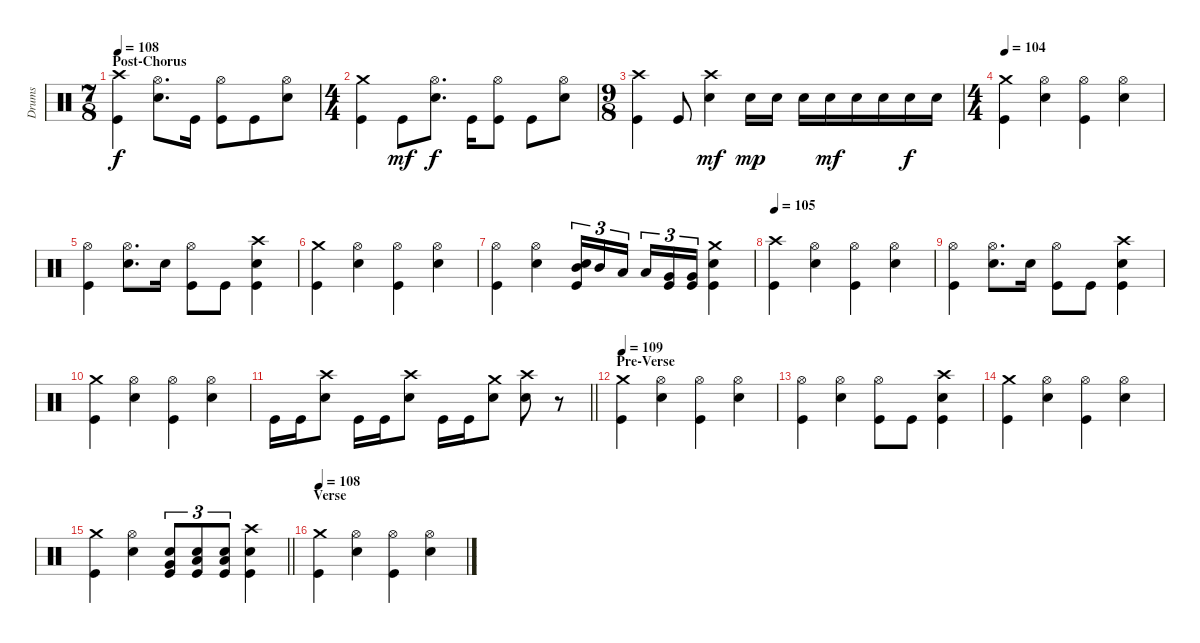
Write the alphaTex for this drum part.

\track ("Drums" "Drums") {instrument percussion}
\staff {score}
\articulation defaults
\ts (7 8)
\section ("" "Post-Chorus")
\tempo 108
\clef neutral
\ks c
("Crash high (hit)" "Kick (hit)").4{dy f} ("Hi-Hat (open)" "Electric Snare (hit)").8{d} "Kick (hit)".16 ("Hi-Hat (open)" "Kick (hit)").8 "Kick (hit)".8 ("Hi-Hat (open)" "Electric Snare (hit)").8 |
\ts (4 4)
("Crash medium (hit)" "Kick (hit)").4 "Kick (hit)".8{dy mf} ("Hi-Hat (open)" "Electric Snare (hit)").8{d dy f} "Kick (hit)".16 ("Hi-Hat (open)" "Kick (hit)").8 "Kick (hit)".8 ("Hi-Hat (open)" "Electric Snare (hit)").8 |
\ts (9 8)
("Crash high (hit)" "Kick (hit)").4 "Kick (hit)".8 ("Crash high (hit)" "Electric Snare (hit)").4{dy mf} "Electric Snare (hit)".16{dy mp} "Electric Snare (hit)".16 "Electric Snare (hit)".16 "Electric Snare (hit)".16{dy mf} "Electric Snare (hit)".16 "Electric Snare (hit)".16 "Electric Snare (hit)".16{dy f} "Electric Snare (hit)".16 |
\ts (4 4)
\tempo 104
("Crash medium (hit)" "Kick (hit)").4 ("Hi-Hat (open)" "Electric Snare (hit)").4 ("Hi-Hat (open)" "Kick (hit)").4 ("Hi-Hat (open)" "Electric Snare (hit)").4 |
("Hi-Hat (open)" "Kick (hit)").4 ("Hi-Hat (open)" "Electric Snare (hit)").8{d} "Electric Snare (hit)".16 ("Hi-Hat (open)" "Kick (hit)").8 "Kick (hit)".8 ("Crash high (hit)" "Electric Snare (hit)" "Kick (hit)").4 |
("Crash medium (hit)" "Kick (hit)").4 ("Hi-Hat (open)" "Electric Snare (hit)").4 ("Hi-Hat (open)" "Kick (hit)").4 ("Hi-Hat (open)" "Electric Snare (hit)").4 |
("Hi-Hat (open)" "Kick (hit)").4 ("Hi-Hat (open)" "Electric Snare (hit)").4 ("Electric Snare (hit)" "Mid Tom (hit)" "Kick (hit)").16{tu (3 2)} "Mid Tom (hit)".16{tu (3 2)} "Low Tom (hit)".16{tu (3 2) beam splitsecondary} "Low Tom (hit)".16{tu (3 2)} ("Very Low Tom (hit)" "Kick (hit)").16{tu (3 2)} ("Very Low Tom (hit)" "Kick (hit)").16{tu (3 2)} ("Crash medium (hit)" "Electric Snare (hit)" "Kick (hit)").4 |
\tempo 105
("Crash high (hit)" "Kick (hit)").4 ("Hi-Hat (open)" "Electric Snare (hit)").4 ("Hi-Hat (open)" "Kick (hit)").4 ("Hi-Hat (open)" "Electric Snare (hit)").4 |
("Hi-Hat (open)" "Kick (hit)").4 ("Hi-Hat (open)" "Electric Snare (hit)").8{d} "Electric Snare (hit)".16 ("Hi-Hat (open)" "Kick (hit)").8 "Kick (hit)".8 ("Crash high (hit)" "Electric Snare (hit)" "Kick (hit)").4 |
("Crash medium (hit)" "Kick (hit)").4 ("Hi-Hat (open)" "Electric Snare (hit)").4 ("Hi-Hat (open)" "Kick (hit)").4 ("Hi-Hat (open)" "Electric Snare (hit)").4 |
\barLineRight lightlight "Kick (hit)".16 "Kick (hit)".16
("Crash high (hit)" "Electric Snare (hit)").8 "Kick (hit)".16 "Kick (hit)".16 ("Crash high (hit)" "Electric Snare (hit)").8 "Kick (hit)".16 "Kick (hit)".16 ("Crash medium (hit)" "Electric Snare (hit)").8 ("Crash high (hit)" "Electric Snare (hit)").8 r.8 |
\section ("" "Pre-Verse")
\tempo 109
("Crash medium (hit)" "Kick (hit)").4 ("Hi-Hat (open)" "Electric Snare (hit)").4 ("Hi-Hat (open)" "Kick (hit)").4 ("Hi-Hat (open)" "Electric Snare (hit)").4 |
("Hi-Hat (open)" "Kick (hit)").4 ("Hi-Hat (open)" "Electric Snare (hit)").4 ("Hi-Hat (open)" "Kick (hit)").8 "Kick (hit)".8 ("Crash high (hit)" "Electric Snare (hit)" "Kick (hit)").4 |
("Crash medium (hit)" "Kick (hit)").4 ("Hi-Hat (open)" "Electric Snare (hit)").4 ("Hi-Hat (open)" "Kick (hit)").4 ("Hi-Hat (open)" "Electric Snare (hit)").4 |
\barLineRight lightlight
("Crash medium (hit)" "Kick (hit)").4 ("Hi-Hat (open)" "Electric Snare (hit)").4 ("Electric Snare (hit)" "Very Low Tom (hit)" "Kick (hit)").8{tu (3 2)} ("Electric Snare (hit)" "Low Floor Tom (hit)" "Kick (hit)").8{tu (3 2)} ("Electric Snare (hit)" "Low Floor Tom (hit)" "Kick (hit)").8{tu (3 2)} ("Crash high (hit)" "Electric Snare (hit)" "Kick (hit)").4 |
\section ("" "Verse")
\tempo 108
("Crash medium (hit)" "Kick (hit)").4 ("Hi-Hat (open)" "Electric Snare (hit)").4 ("Hi-Hat (open)" "Kick (hit)").4 ("Hi-Hat (open)" "Electric Snare (hit)").4
